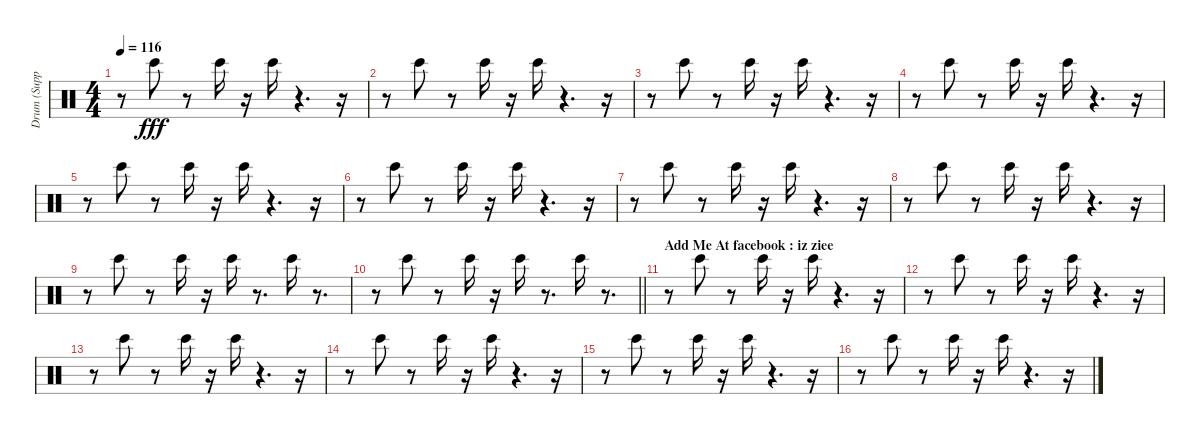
\track ("Drum (Support)" "Drum (Supp") {instrument percussion}
\staff {score}
\articulation defaults
\ts (4 4)
\tempo 116
\clef neutral
\ks c
r.8{dy fff} "Bongo High (hit)".8 r.8 "Bongo High (hit)".16 r.16 "Bongo High (hit)".16 r.4{d} r.16 |
r.8 "Bongo High (hit)".8 r.8 "Bongo High (hit)".16 r.16 "Bongo High (hit)".16 r.4{d} r.16 |
r.8 "Bongo High (hit)".8 r.8 "Bongo High (hit)".16 r.16 "Bongo High (hit)".16 r.4{d} r.16 |
r.8 "Bongo High (hit)".8 r.8 "Bongo High (hit)".16 r.16 "Bongo High (hit)".16 r.4{d} r.16 |
r.8 "Bongo High (hit)".8 r.8 "Bongo High (hit)".16 r.16 "Bongo High (hit)".16 r.4{d} r.16 |
r.8 "Bongo High (hit)".8 r.8 "Bongo High (hit)".16 r.16 "Bongo High (hit)".16 r.4{d} r.16 |
r.8 "Bongo High (hit)".8 r.8 "Bongo High (hit)".16 r.16 "Bongo High (hit)".16 r.4{d} r.16 |
r.8 "Bongo High (hit)".8 r.8 "Bongo High (hit)".16 r.16 "Bongo High (hit)".16 r.4{d} r.16 |
r.8 "Bongo High (hit)".8 r.8 "Bongo High (hit)".16 r.16 "Bongo High (hit)".16 r.8{d} "Bongo High (hit)".16 r.8{d} |
\barLineRight lightlight
r.8 "Bongo High (hit)".8 r.8 "Bongo High (hit)".16 r.16 "Bongo High (hit)".16 r.8{d} "Bongo High (hit)".16 r.8{d} |
\section ("" "Add Me At facebook : iz ziee")
r.8 "Bongo High (hit)".8 r.8 "Bongo High (hit)".16 r.16 "Bongo High (hit)".16 r.4{d} r.16 |
r.8 "Bongo High (hit)".8 r.8 "Bongo High (hit)".16 r.16 "Bongo High (hit)".16 r.4{d} r.16 |
r.8 "Bongo High (hit)".8 r.8 "Bongo High (hit)".16 r.16 "Bongo High (hit)".16 r.4{d} r.16 |
r.8 "Bongo High (hit)".8 r.8 "Bongo High (hit)".16 r.16 "Bongo High (hit)".16 r.4{d} r.16 |
r.8 "Bongo High (hit)".8 r.8 "Bongo High (hit)".16 r.16 "Bongo High (hit)".16 r.4{d} r.16 |
r.8 "Bongo High (hit)".8 r.8 "Bongo High (hit)".16 r.16 "Bongo High (hit)".16 r.4{d} r.16
